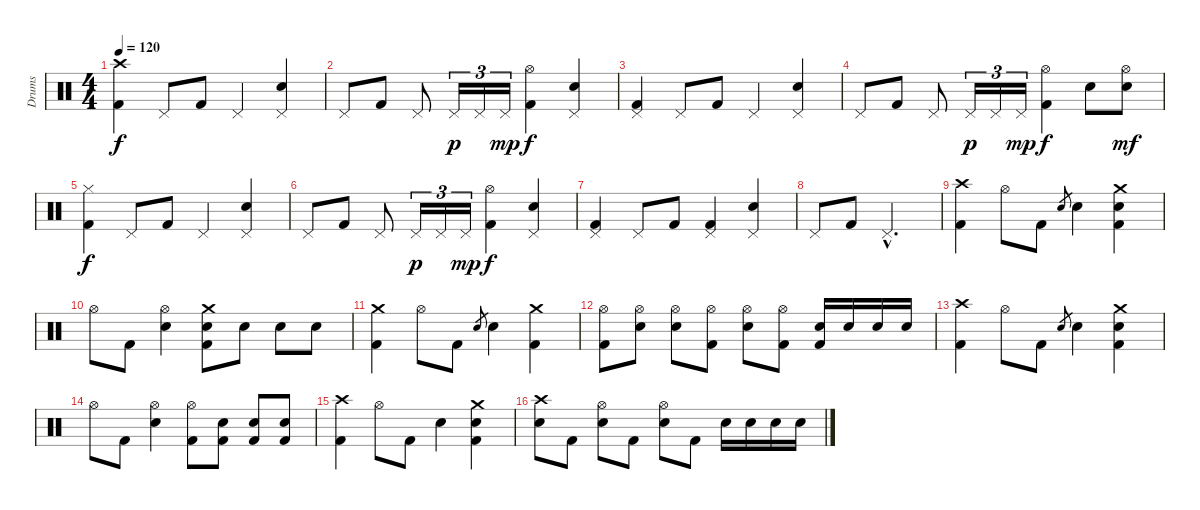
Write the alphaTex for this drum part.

\track ("Drums" "Drums") {instrument percussion}
\staff {score}
\articulation defaults
\ts (4 4)
\tempo 120
\clef neutral
\ks c
("Kick (hit) 2" "Crash high (hit)").4{dy f} "Pedal Hi-Hat (hit)".8 "Kick (hit) 2".8 "Pedal Hi-Hat (hit)".4 ("Snare (hit) 2" "Pedal Hi-Hat (hit)").4 |
"Pedal Hi-Hat (hit)".8 "Kick (hit) 2".8 "Pedal Hi-Hat (hit)".8 "Pedal Hi-Hat (hit)".16{tu (3 2) dy p} "Pedal Hi-Hat (hit)".16{tu (3 2)} "Pedal Hi-Hat (hit)".16{tu (3 2) dy mp} ("Kick (hit) 2" "Hi-Hat (open)").4{dy f} ("Snare (hit) 2" "Pedal Hi-Hat (hit)").4 |
("Kick (hit) 2" "Pedal Hi-Hat (hit)").4 "Pedal Hi-Hat (hit)".8 "Kick (hit) 2".8 "Pedal Hi-Hat (hit)".4 ("Snare (hit) 2" "Pedal Hi-Hat (hit)").4 |
"Pedal Hi-Hat (hit)".8 "Kick (hit) 2".8 "Pedal Hi-Hat (hit)".8 "Pedal Hi-Hat (hit)".16{tu (3 2) dy p} "Pedal Hi-Hat (hit)".16{tu (3 2)} "Pedal Hi-Hat (hit)".16{tu (3 2) dy mp} ("Kick (hit) 2" "Hi-Hat (open)").4{dy f} "Snare (hit) 2".8 ("Snare (hit) 2" "Hi-Hat (open)").8{dy mf} |
("Kick (hit) 2" "Hi-Hat (closed)").4{dy f} "Pedal Hi-Hat (hit)".8 "Kick (hit) 2".8 "Pedal Hi-Hat (hit)".4 ("Snare (hit) 2" "Pedal Hi-Hat (hit)").4 |
"Pedal Hi-Hat (hit)".8 "Kick (hit) 2".8 "Pedal Hi-Hat (hit)".8 "Pedal Hi-Hat (hit)".16{tu (3 2) dy p} "Pedal Hi-Hat (hit)".16{tu (3 2)} "Pedal Hi-Hat (hit)".16{tu (3 2) dy mp} ("Kick (hit) 2" "Hi-Hat (open)").4{dy f} ("Snare (hit) 2" "Pedal Hi-Hat (hit)").4 |
("Kick (hit) 2" "Pedal Hi-Hat (hit)").4 "Pedal Hi-Hat (hit)".8 "Kick (hit) 2".8 ("Kick (hit) 2" "Pedal Hi-Hat (hit)").4 ("Snare (hit) 2" "Pedal Hi-Hat (hit)").4 |
"Pedal Hi-Hat (hit)".8 "Kick (hit) 2".8 "Pedal Hi-Hat (hit)"{hac}.2{d} |
("Kick (hit) 2" "Crash high (hit)").4 "Hi-Hat (open)".8 "Kick (hit) 2".8 "Snare (hit) 2".8{gr} "Snare (hit) 2".4 ("Kick (hit) 2" "Snare (hit) 2" "Crash medium (hit)").4 |
"Hi-Hat (open)".8 "Kick (hit) 2".8 ("Snare (hit) 2" "Hi-Hat (open)").4 ("Kick (hit) 2" "Snare (hit) 2" "Crash medium (hit)").8 "Snare (hit) 2".8 "Snare (hit) 2".8 "Snare (hit) 2".8 |
("Kick (hit) 2" "Crash medium (hit)").4 "Hi-Hat (open)".8 "Kick (hit) 2".8 "Snare (hit) 2".8{gr} "Snare (hit) 2".4 ("Kick (hit) 2" "Crash medium (hit)").4 |
("Kick (hit) 2" "Hi-Hat (open)").8 ("Snare (hit) 2" "Hi-Hat (open)").8 ("Snare (hit) 2" "Hi-Hat (open)").8 ("Kick (hit) 2" "Hi-Hat (open)").8 ("Snare (hit) 2" "Hi-Hat (open)").8 ("Kick (hit) 2" "Hi-Hat (open)").8 ("Kick (hit) 2" "Snare (hit) 2").16 "Snare (hit) 2".16 "Snare (hit) 2".16 "Snare (hit) 2".16 |
("Kick (hit) 2" "Crash high (hit)").4 "Hi-Hat (open)".8 "Kick (hit) 2".8 "Snare (hit) 2".8{gr} "Snare (hit) 2".4 ("Kick (hit) 2" "Snare (hit) 2" "Crash medium (hit)").4 |
"Hi-Hat (open)".8 "Kick (hit) 2".8 ("Snare (hit) 2" "Hi-Hat (open)").4 ("Kick (hit) 2" "Hi-Hat (open)").8 ("Kick (hit) 2" "Snare (hit) 2").8 ("Kick (hit) 2" "Snare (hit) 2").8 ("Kick (hit) 2" "Snare (hit) 2").8 |
("Kick (hit) 2" "Crash high (hit)").4 "Hi-Hat (open)".8 "Kick (hit) 2".8 "Snare (hit) 2".4 ("Kick (hit) 2" "Snare (hit) 2" "Crash medium (hit)").4 |
("Snare (hit) 2" "Crash high (hit)").8 "Kick (hit) 2".8 ("Snare (hit) 2" "Hi-Hat (open)").8 "Kick (hit) 2".8 ("Snare (hit) 2" "Hi-Hat (open)").8 "Kick (hit) 2".8 "Snare (hit) 2".16 "Snare (hit) 2".16 "Snare (hit) 2".16 "Snare (hit) 2".16
